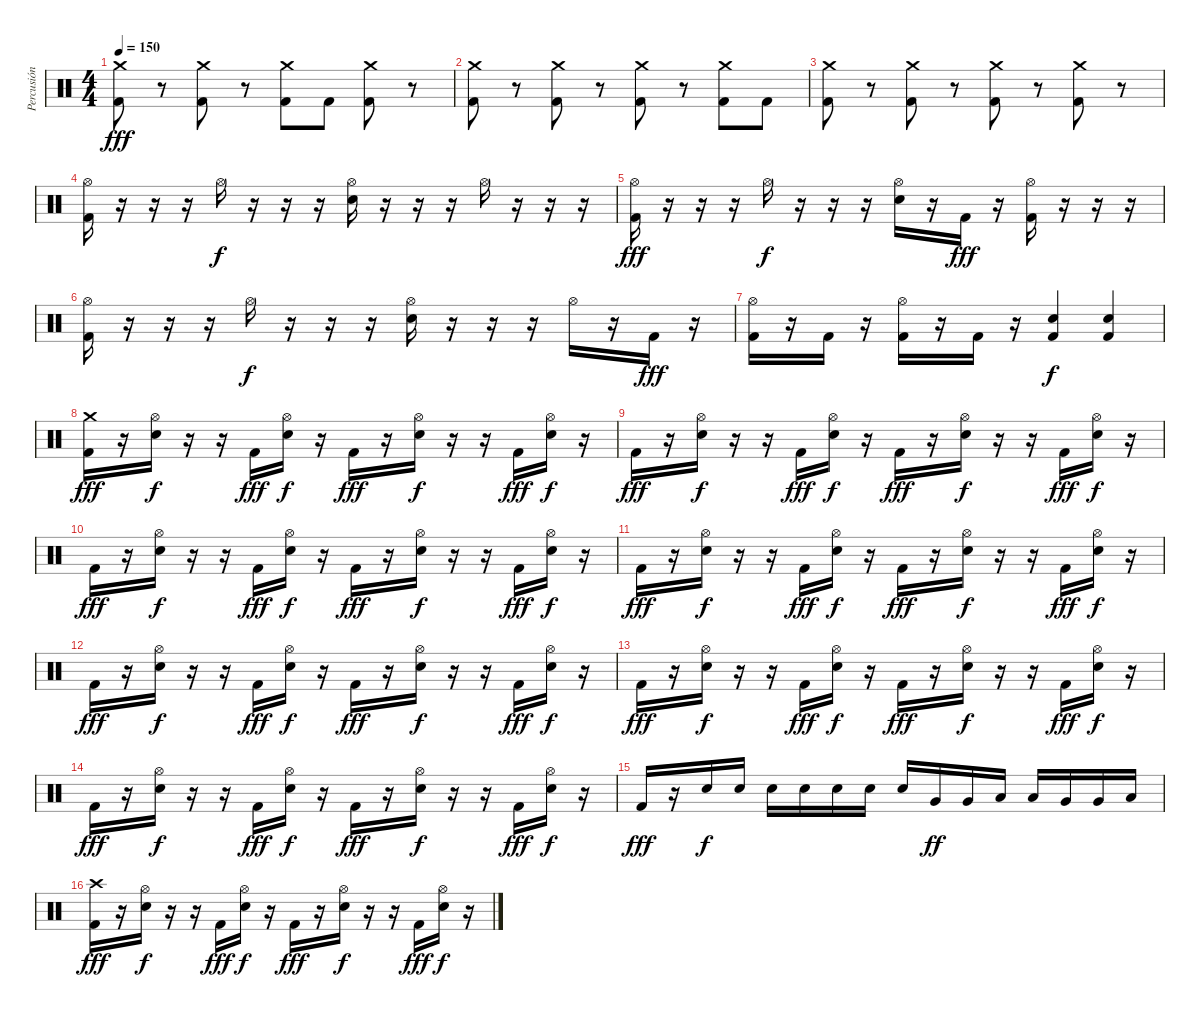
\track ("Percusión" "Percusión") {instrument percussion}
\staff {score}
\articulation defaults
\ts (4 4)
\tempo 150
\clef neutral
\ks c
("Kick (hit) 2" "Crash medium (hit)").8{dy fff} r.8 ("Kick (hit) 2" "Crash medium (hit)").8 r.8 ("Kick (hit) 2" "Crash medium (hit)").8 "Kick (hit) 2".8 ("Kick (hit) 2" "Crash medium (hit)").8 r.8 |
("Kick (hit) 2" "Crash medium (hit)").8 r.8 ("Kick (hit) 2" "Crash medium (hit)").8 r.8 ("Kick (hit) 2" "Crash medium (hit)").8 r.8 ("Kick (hit) 2" "Crash medium (hit)").8 "Kick (hit) 2".8 |
("Kick (hit) 2" "Crash medium (hit)").8 r.8 ("Kick (hit) 2" "Crash medium (hit)").8 r.8 ("Kick (hit) 2" "Crash medium (hit)").8 r.8 ("Kick (hit) 2" "Crash medium (hit)").8 r.8 |
("Kick (hit) 2" "Hi-Hat (open)").16 r.16 r.16 r.16 "Hi-Hat (open)".16{dy f} r.16 r.16 r.16 ("Electric Snare (hit)" "Hi-Hat (open)").16 r.16 r.16 r.16 "Hi-Hat (open)".16 r.16 r.16 r.16 |
("Kick (hit) 2" "Hi-Hat (open)").16{dy fff} r.16 r.16 r.16 "Hi-Hat (open)".16{dy f} r.16 r.16 r.16 ("Electric Snare (hit)" "Hi-Hat (open)").16 r.16 "Kick (hit) 2".16{dy fff} r.16 ("Kick (hit) 2" "Hi-Hat (open)").16 r.16 r.16 r.16 |
("Kick (hit) 2" "Hi-Hat (open)").16 r.16 r.16 r.16 "Hi-Hat (open)".16{dy f} r.16 r.16 r.16 ("Electric Snare (hit)" "Hi-Hat (open)").16 r.16 r.16 r.16 "Hi-Hat (open)".16 r.16 "Kick (hit) 2".16{dy fff} r.16 |
("Kick (hit) 2" "Hi-Hat (open)").16 r.16 "Kick (hit) 2".16 r.16 ("Kick (hit) 2" "Hi-Hat (open)").16 r.16 "Kick (hit) 2".16 r.16 ("Electric Snare (hit)" "Kick (hit) 2").4{dy f} ("Electric Snare (hit)" "Kick (hit) 2").4 |
("Kick (hit) 2" "Crash medium (hit)").16{dy fff} r.16 ("Electric Snare (hit)" "Hi-Hat (open)").16{dy f} r.16 r.16 "Kick (hit) 2".16{dy fff} ("Electric Snare (hit)" "Hi-Hat (open)").16{dy f} r.16 "Kick (hit) 2".16{dy fff} r.16 ("Electric Snare (hit)" "Hi-Hat (open)").16{dy f} r.16 r.16 "Kick (hit) 2".16{dy fff} ("Electric Snare (hit)" "Hi-Hat (open)").16{dy f} r.16 |
"Kick (hit) 2".16{dy fff} r.16 ("Electric Snare (hit)" "Hi-Hat (open)").16{dy f} r.16 r.16 "Kick (hit) 2".16{dy fff} ("Electric Snare (hit)" "Hi-Hat (open)").16{dy f} r.16 "Kick (hit) 2".16{dy fff} r.16 ("Electric Snare (hit)" "Hi-Hat (open)").16{dy f} r.16 r.16 "Kick (hit) 2".16{dy fff} ("Electric Snare (hit)" "Hi-Hat (open)").16{dy f} r.16 |
"Kick (hit) 2".16{dy fff} r.16 ("Electric Snare (hit)" "Hi-Hat (open)").16{dy f} r.16 r.16 "Kick (hit) 2".16{dy fff} ("Electric Snare (hit)" "Hi-Hat (open)").16{dy f} r.16 "Kick (hit) 2".16{dy fff} r.16 ("Electric Snare (hit)" "Hi-Hat (open)").16{dy f} r.16 r.16 "Kick (hit) 2".16{dy fff} ("Electric Snare (hit)" "Hi-Hat (open)").16{dy f} r.16 |
"Kick (hit) 2".16{dy fff} r.16 ("Electric Snare (hit)" "Hi-Hat (open)").16{dy f} r.16 r.16 "Kick (hit) 2".16{dy fff} ("Electric Snare (hit)" "Hi-Hat (open)").16{dy f} r.16 "Kick (hit) 2".16{dy fff} r.16 ("Electric Snare (hit)" "Hi-Hat (open)").16{dy f} r.16 r.16 "Kick (hit) 2".16{dy fff} ("Electric Snare (hit)" "Hi-Hat (open)").16{dy f} r.16 |
"Kick (hit) 2".16{dy fff} r.16 ("Electric Snare (hit)" "Hi-Hat (open)").16{dy f} r.16 r.16 "Kick (hit) 2".16{dy fff} ("Electric Snare (hit)" "Hi-Hat (open)").16{dy f} r.16 "Kick (hit) 2".16{dy fff} r.16 ("Electric Snare (hit)" "Hi-Hat (open)").16{dy f} r.16 r.16 "Kick (hit) 2".16{dy fff} ("Electric Snare (hit)" "Hi-Hat (open)").16{dy f} r.16 |
"Kick (hit) 2".16{dy fff} r.16 ("Electric Snare (hit)" "Hi-Hat (open)").16{dy f} r.16 r.16 "Kick (hit) 2".16{dy fff} ("Electric Snare (hit)" "Hi-Hat (open)").16{dy f} r.16 "Kick (hit) 2".16{dy fff} r.16 ("Electric Snare (hit)" "Hi-Hat (open)").16{dy f} r.16 r.16 "Kick (hit) 2".16{dy fff} ("Electric Snare (hit)" "Hi-Hat (open)").16{dy f} r.16 |
"Kick (hit) 2".16{dy fff} r.16 ("Electric Snare (hit)" "Hi-Hat (open)").16{dy f} r.16 r.16 "Kick (hit) 2".16{dy fff} ("Electric Snare (hit)" "Hi-Hat (open)").16{dy f} r.16 "Kick (hit) 2".16{dy fff} r.16 ("Electric Snare (hit)" "Hi-Hat (open)").16{dy f} r.16 r.16 "Kick (hit) 2".16{dy fff} ("Electric Snare (hit)" "Hi-Hat (open)").16{dy f} r.16 |
"Kick (hit) 2".16{dy fff} r.16 "Electric Snare (hit)".16{dy f} "Electric Snare (hit)".16 "Electric Snare (hit)".16 "Electric Snare (hit)".16 "Electric Snare (hit)".16 "Electric Snare (hit)".16 "Electric Snare (hit)".16 "Very Low Tom (hit)".16{dy ff} "Very Low Tom (hit)".16 "Low Floor Tom (hit)".16 "Low Floor Tom (hit)".16 "Very Low Tom (hit)".16 "Very Low Tom (hit)".16 "Low Floor Tom (hit)".16 |
("Kick (hit) 2" "Crash high (hit)").16{dy fff} r.16 ("Electric Snare (hit)" "Hi-Hat (open)").16{dy f} r.16 r.16 "Kick (hit) 2".16{dy fff} ("Electric Snare (hit)" "Hi-Hat (open)").16{dy f} r.16 "Kick (hit) 2".16{dy fff} r.16 ("Electric Snare (hit)" "Hi-Hat (open)").16{dy f} r.16 r.16 "Kick (hit) 2".16{dy fff} ("Electric Snare (hit)" "Hi-Hat (open)").16{dy f} r.16
